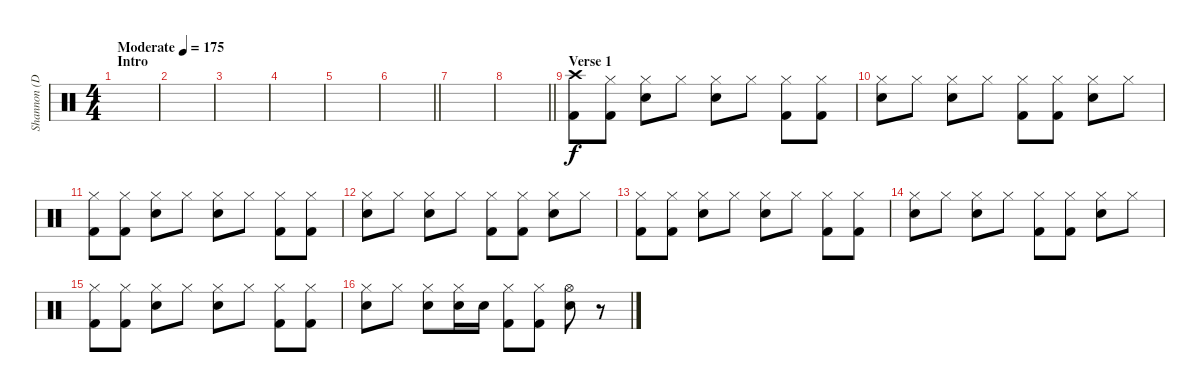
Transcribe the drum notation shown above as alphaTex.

\track ("Shannon (Drum)" "Shannon (D") {instrument percussion}
\staff {score}
\articulation defaults
\ts (4 4)
\section ("" "Intro")
\tempo (175 "Moderate")
\clef neutral
\ks c
|
|
|
|
|
\barLineRight lightlight
|
|
\barLineRight lightlight
|
\section ("" "Verse 1")
("Crash high (hit)" "Kick (hit) 2").8 ("Hi-Hat (closed)" "Kick (hit) 2").8 ("Hi-Hat (closed)" "Electric Snare (hit)").8 "Hi-Hat (closed)".8 ("Hi-Hat (closed)" "Electric Snare (hit)").8 "Hi-Hat (closed)".8 ("Hi-Hat (closed)" "Kick (hit) 2").8 ("Hi-Hat (closed)" "Kick (hit) 2").8 |
("Hi-Hat (closed)" "Electric Snare (hit)").8 "Hi-Hat (closed)".8 ("Hi-Hat (closed)" "Electric Snare (hit)").8 "Hi-Hat (closed)".8 ("Hi-Hat (closed)" "Kick (hit) 2").8 ("Hi-Hat (closed)" "Kick (hit) 2").8 ("Hi-Hat (closed)" "Electric Snare (hit)").8 "Hi-Hat (closed)".8 |
("Hi-Hat (closed)" "Kick (hit) 2").8 ("Hi-Hat (closed)" "Kick (hit) 2").8 ("Hi-Hat (closed)" "Electric Snare (hit)").8 "Hi-Hat (closed)".8 ("Hi-Hat (closed)" "Electric Snare (hit)").8 "Hi-Hat (closed)".8 ("Hi-Hat (closed)" "Kick (hit) 2").8 ("Hi-Hat (closed)" "Kick (hit) 2").8 |
("Hi-Hat (closed)" "Electric Snare (hit)").8 "Hi-Hat (closed)".8 ("Hi-Hat (closed)" "Electric Snare (hit)").8 "Hi-Hat (closed)".8 ("Hi-Hat (closed)" "Kick (hit) 2").8 ("Hi-Hat (closed)" "Kick (hit) 2").8 ("Hi-Hat (closed)" "Electric Snare (hit)").8 "Hi-Hat (closed)".8 |
("Hi-Hat (closed)" "Kick (hit) 2").8 ("Hi-Hat (closed)" "Kick (hit) 2").8 ("Hi-Hat (closed)" "Electric Snare (hit)").8 "Hi-Hat (closed)".8 ("Hi-Hat (closed)" "Electric Snare (hit)").8 "Hi-Hat (closed)".8 ("Hi-Hat (closed)" "Kick (hit) 2").8 ("Hi-Hat (closed)" "Kick (hit) 2").8 |
("Hi-Hat (closed)" "Electric Snare (hit)").8 "Hi-Hat (closed)".8 ("Hi-Hat (closed)" "Electric Snare (hit)").8 "Hi-Hat (closed)".8 ("Hi-Hat (closed)" "Kick (hit) 2").8 ("Hi-Hat (closed)" "Kick (hit) 2").8 ("Hi-Hat (closed)" "Electric Snare (hit)").8 "Hi-Hat (closed)".8 |
("Hi-Hat (closed)" "Kick (hit) 2").8 ("Hi-Hat (closed)" "Kick (hit) 2").8 ("Hi-Hat (closed)" "Electric Snare (hit)").8 "Hi-Hat (closed)".8 ("Hi-Hat (closed)" "Electric Snare (hit)").8 "Hi-Hat (closed)".8 ("Hi-Hat (closed)" "Kick (hit) 2").8 ("Hi-Hat (closed)" "Kick (hit) 2").8 |
("Hi-Hat (closed)" "Electric Snare (hit)").8 "Hi-Hat (closed)".8 ("Hi-Hat (closed)" "Electric Snare (hit)").8 ("Hi-Hat (closed)" "Electric Snare (hit)").16 "Electric Snare (hit)".16 ("Hi-Hat (closed)" "Kick (hit) 2").8 ("Hi-Hat (closed)" "Kick (hit) 2").8 ("Hi-Hat (open)" "Electric Snare (hit)").8 r.8
